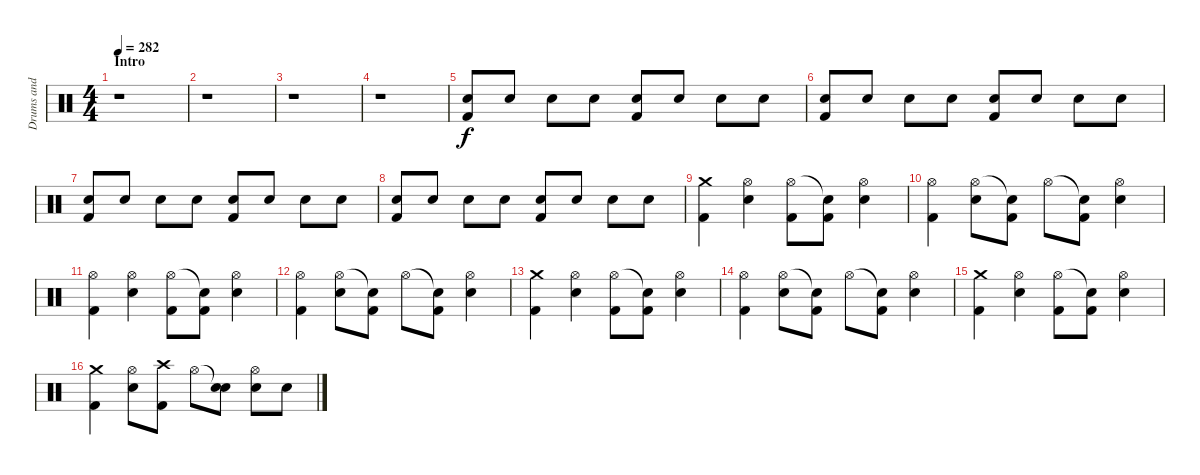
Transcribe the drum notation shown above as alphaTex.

\track ("Drums and Percussion" "Drums and ") {instrument percussion}
\staff {score}
\articulation defaults
\ts (4 4)
\section ("" "Intro")
\tempo 282
\clef neutral
\ks c
r.1{dy f} |
r.1 |
r.1 |
r.1 |
("Snare (hit) 2" "Kick (hit) 2").8 "Snare (hit) 2".8 "Snare (hit) 2".8 "Snare (hit) 2".8 ("Snare (hit) 2" "Kick (hit) 2").8 "Snare (hit) 2".8 "Snare (hit) 2".8 "Snare (hit) 2".8 |
("Snare (hit) 2" "Kick (hit) 2").8 "Snare (hit) 2".8 "Snare (hit) 2".8 "Snare (hit) 2".8 ("Snare (hit) 2" "Kick (hit) 2").8 "Snare (hit) 2".8 "Snare (hit) 2".8 "Snare (hit) 2".8 |
("Snare (hit) 2" "Kick (hit) 2").8 "Snare (hit) 2".8 "Snare (hit) 2".8 "Snare (hit) 2".8 ("Snare (hit) 2" "Kick (hit) 2").8 "Snare (hit) 2".8 "Snare (hit) 2".8 "Snare (hit) 2".8 |
("Snare (hit) 2" "Kick (hit) 2").8 "Snare (hit) 2".8 "Snare (hit) 2".8 "Snare (hit) 2".8 ("Snare (hit) 2" "Kick (hit) 2").8 "Snare (hit) 2".8 "Snare (hit) 2".8 "Snare (hit) 2".8 |
("Crash medium (hit)" "Kick (hit) 2").4 ("Hi-Hat (open)" "Snare (hit) 2").4 ("Hi-Hat (open)" "Kick (hit) 2").8 ("Snare (hit)"{t} "Kick (hit) 2").8 ("Hi-Hat (open)" "Snare (hit) 2").4 |
("Hi-Hat (open)" "Kick (hit) 2").4 ("Hi-Hat (open)" "Snare (hit) 2").8 ("Snare (hit)"{t} "Kick (hit) 2").8 "Hi-Hat (open)".8 ("Snare (hit)"{t} "Kick (hit) 2").8 ("Hi-Hat (open)" "Snare (hit) 2").4 |
("Hi-Hat (open)" "Kick (hit) 2").4 ("Hi-Hat (open)" "Snare (hit) 2").4 ("Hi-Hat (open)" "Kick (hit) 2").8 ("Snare (hit)"{t} "Kick (hit) 2").8 ("Hi-Hat (open)" "Snare (hit) 2").4 |
("Hi-Hat (open)" "Kick (hit) 2").4 ("Hi-Hat (open)" "Snare (hit) 2").8 ("Snare (hit)"{t} "Kick (hit) 2").8 "Hi-Hat (open)".8 ("Snare (hit)"{t} "Kick (hit) 2").8 ("Hi-Hat (open)" "Snare (hit) 2").4 |
("Crash medium (hit)" "Kick (hit) 2").4 ("Hi-Hat (open)" "Snare (hit) 2").4 ("Hi-Hat (open)" "Kick (hit) 2").8 ("Snare (hit)"{t} "Kick (hit) 2").8 ("Hi-Hat (open)" "Snare (hit) 2").4 |
("Hi-Hat (open)" "Kick (hit) 2").4 ("Hi-Hat (open)" "Snare (hit) 2").8 ("Snare (hit)"{t} "Kick (hit) 2").8 "Hi-Hat (open)".8 ("Snare (hit)"{t} "Kick (hit) 2").8 ("Hi-Hat (open)" "Snare (hit) 2").4 |
("Crash medium (hit)" "Kick (hit) 2").4 ("Hi-Hat (open)" "Snare (hit) 2").4 ("Hi-Hat (open)" "Kick (hit) 2").8 ("Snare (hit)"{t} "Kick (hit) 2").8 ("Hi-Hat (open)" "Snare (hit) 2").4 |
("Crash medium (hit)" "Kick (hit) 2").4 ("Hi-Hat (open)" "Snare (hit) 2").8 ("Crash high (hit)" "Kick (hit) 2").8 "Hi-Hat (open)".8 ("Snare (hit)"{t} "Snare (hit) 2").8 ("Hi-Hat (open)" "Snare (hit) 2").8 "Snare (hit) 2".8
